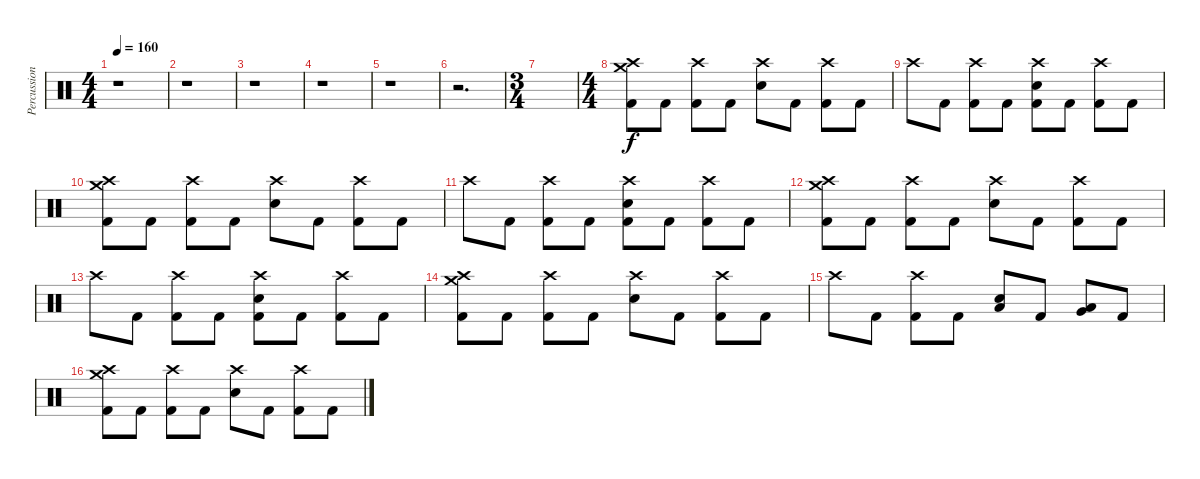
\track ("Percussion" "Percussion") {instrument percussion}
\staff {score}
\articulation defaults
\ts (4 4)
\tempo 160
\clef neutral
\ks c
r.1{dy f} |
r.1 |
r.1 |
r.1 |
r.1 |
r.2{d} |
\ts (3 4)
|
\ts (4 4)
("Crash high (hit)" "Crash medium (hit)" "Kick (hit) 2").8 "Kick (hit) 2".8 ("Crash high (hit)" "Kick (hit) 2").8 "Kick (hit) 2".8 ("Crash high (hit)" "Electric Snare (hit)").8 "Kick (hit) 2".8 ("Crash high (hit)" "Kick (hit) 2").8 "Kick (hit) 2".8 |
"Crash high (hit)".8 "Kick (hit) 2".8 ("Crash high (hit)" "Kick (hit) 2").8 "Kick (hit) 2".8 ("Crash high (hit)" "Electric Snare (hit)" "Kick (hit) 2").8 "Kick (hit) 2".8 ("Crash high (hit)" "Kick (hit) 2").8 "Kick (hit) 2".8 |
("Crash high (hit)" "Crash medium (hit)" "Kick (hit) 2").8 "Kick (hit) 2".8 ("Crash high (hit)" "Kick (hit) 2").8 "Kick (hit) 2".8 ("Crash high (hit)" "Electric Snare (hit)").8 "Kick (hit) 2".8 ("Crash high (hit)" "Kick (hit) 2").8 "Kick (hit) 2".8 |
"Crash high (hit)".8 "Kick (hit) 2".8 ("Crash high (hit)" "Kick (hit) 2").8 "Kick (hit) 2".8 ("Crash high (hit)" "Electric Snare (hit)" "Kick (hit) 2").8 "Kick (hit) 2".8 ("Crash high (hit)" "Kick (hit) 2").8 "Kick (hit) 2".8 |
("Crash high (hit)" "Crash medium (hit)" "Kick (hit) 2").8 "Kick (hit) 2".8 ("Crash high (hit)" "Kick (hit) 2").8 "Kick (hit) 2".8 ("Crash high (hit)" "Electric Snare (hit)").8 "Kick (hit) 2".8 ("Crash high (hit)" "Kick (hit) 2").8 "Kick (hit) 2".8 |
"Crash high (hit)".8 "Kick (hit) 2".8 ("Crash high (hit)" "Kick (hit) 2").8 "Kick (hit) 2".8 ("Crash high (hit)" "Electric Snare (hit)" "Kick (hit) 2").8 "Kick (hit) 2".8 ("Crash high (hit)" "Kick (hit) 2").8 "Kick (hit) 2".8 |
("Crash high (hit)" "Crash medium (hit)" "Kick (hit) 2").8 "Kick (hit) 2".8 ("Crash high (hit)" "Kick (hit) 2").8 "Kick (hit) 2".8 ("Crash high (hit)" "Electric Snare (hit)").8 "Kick (hit) 2".8 ("Crash high (hit)" "Kick (hit) 2").8 "Kick (hit) 2".8 |
"Crash high (hit)".8 "Kick (hit) 2".8 ("Crash high (hit)" "Kick (hit) 2").8 "Kick (hit) 2".8 ("Low Tom (hit)" "Electric Snare (hit)").8 "Kick (hit) 2".8 ("Very Low Tom (hit)" "Low Tom (hit)").8 "Kick (hit) 2".8 |
("Crash high (hit)" "Crash medium (hit)" "Kick (hit) 2").8 "Kick (hit) 2".8 ("Crash high (hit)" "Kick (hit) 2").8 "Kick (hit) 2".8 ("Crash high (hit)" "Electric Snare (hit)").8 "Kick (hit) 2".8 ("Crash high (hit)" "Kick (hit) 2").8 "Kick (hit) 2".8
